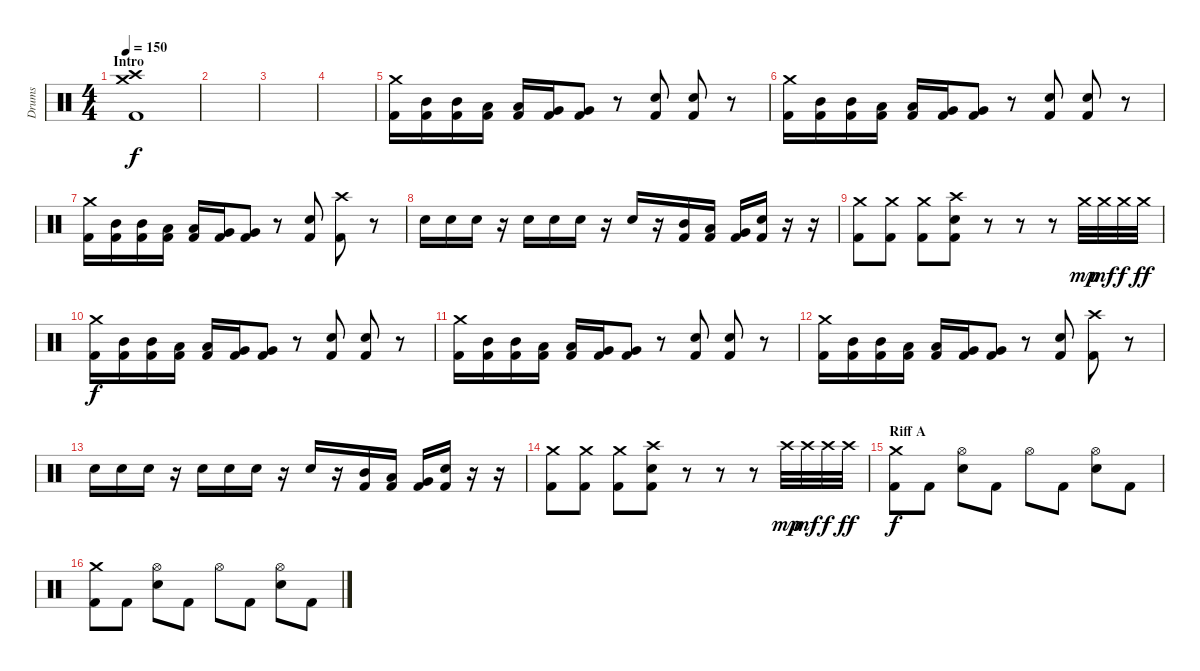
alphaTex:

\track ("Drums" "Drums") {instrument percussion}
\staff {score}
\articulation defaults
\ts (4 4)
\section ("" "Intro")
\tempo 150
\clef neutral
\ks c
("Crash medium (hit)" "Crash high (hit)" "Kick (hit) 2").1{dy f} |
|
|
|
("Crash medium (hit)" "Kick (hit) 2").16 ("Mid Tom (hit)" "Kick (hit) 2").16 ("Mid Tom (hit)" "Kick (hit) 2").16 ("Low Tom (hit)" "Kick (hit) 2").16 ("Low Tom (hit)" "Kick (hit) 2").16 ("Very Low Tom (hit)" "Kick (hit) 2").16 ("Very Low Tom (hit)" "Kick (hit) 2").8 r.8 ("Electric Snare (hit)" "Kick (hit) 2").8 ("Electric Snare (hit)" "Kick (hit) 2").8 r.8 |
("Crash medium (hit)" "Kick (hit) 2").16 ("Mid Tom (hit)" "Kick (hit) 2").16 ("Mid Tom (hit)" "Kick (hit) 2").16 ("Low Tom (hit)" "Kick (hit) 2").16 ("Low Tom (hit)" "Kick (hit) 2").16 ("Very Low Tom (hit)" "Kick (hit) 2").16 ("Very Low Tom (hit)" "Kick (hit) 2").8 r.8 ("Electric Snare (hit)" "Kick (hit) 2").8 ("Electric Snare (hit)" "Kick (hit) 2").8 r.8 |
("Crash medium (hit)" "Kick (hit) 2").16 ("Mid Tom (hit)" "Kick (hit) 2").16 ("Mid Tom (hit)" "Kick (hit) 2").16 ("Low Tom (hit)" "Kick (hit) 2").16 ("Low Tom (hit)" "Kick (hit) 2").16 ("Very Low Tom (hit)" "Kick (hit) 2").16 ("Very Low Tom (hit)" "Kick (hit) 2").8 r.8 ("Electric Snare (hit)" "Kick (hit) 2").8 ("Crash high (hit)" "Kick (hit) 2").8 r.8 |
"Electric Snare (hit)".16 "Electric Snare (hit)".16 "Electric Snare (hit)".16 r.16 "Electric Snare (hit)".16 "Electric Snare (hit)".16 "Electric Snare (hit)".16 r.16 "Electric Snare (hit)".16 r.16 ("Mid Tom (hit)" "Kick (hit) 2").16 ("Low Tom (hit)" "Kick (hit) 2").16 ("Very Low Tom (hit)" "Kick (hit) 2").16 ("Electric Snare (hit)" "Kick (hit) 2").16 r.16 r.16 |
("Crash medium (hit)" "Kick (hit) 2").8 ("Crash medium (hit)" "Kick (hit) 2").8 ("Crash medium (hit)" "Kick (hit) 2").8 ("Crash high (hit)" "Electric Snare (hit)" "Kick (hit) 2").8 r.8 r.8 r.8 "Crash medium (hit)".32{dy mp} "Crash medium (hit)".32{dy mf} "Crash medium (hit)".32{dy f} "Crash medium (hit)".32{dy ff} |
("Crash medium (hit)" "Kick (hit) 2").16{dy f} ("Mid Tom (hit)" "Kick (hit) 2").16 ("Mid Tom (hit)" "Kick (hit) 2").16 ("Low Tom (hit)" "Kick (hit) 2").16 ("Low Tom (hit)" "Kick (hit) 2").16 ("Very Low Tom (hit)" "Kick (hit) 2").16 ("Very Low Tom (hit)" "Kick (hit) 2").8 r.8 ("Electric Snare (hit)" "Kick (hit) 2").8 ("Electric Snare (hit)" "Kick (hit) 2").8 r.8 |
("Crash medium (hit)" "Kick (hit) 2").16 ("Mid Tom (hit)" "Kick (hit) 2").16 ("Mid Tom (hit)" "Kick (hit) 2").16 ("Low Tom (hit)" "Kick (hit) 2").16 ("Low Tom (hit)" "Kick (hit) 2").16 ("Very Low Tom (hit)" "Kick (hit) 2").16 ("Very Low Tom (hit)" "Kick (hit) 2").8 r.8 ("Electric Snare (hit)" "Kick (hit) 2").8 ("Electric Snare (hit)" "Kick (hit) 2").8 r.8 |
("Crash medium (hit)" "Kick (hit) 2").16 ("Mid Tom (hit)" "Kick (hit) 2").16 ("Mid Tom (hit)" "Kick (hit) 2").16 ("Low Tom (hit)" "Kick (hit) 2").16 ("Low Tom (hit)" "Kick (hit) 2").16 ("Very Low Tom (hit)" "Kick (hit) 2").16 ("Very Low Tom (hit)" "Kick (hit) 2").8 r.8 ("Electric Snare (hit)" "Kick (hit) 2").8 ("Crash high (hit)" "Kick (hit) 2").8 r.8 |
"Electric Snare (hit)".16 "Electric Snare (hit)".16 "Electric Snare (hit)".16 r.16 "Electric Snare (hit)".16 "Electric Snare (hit)".16 "Electric Snare (hit)".16 r.16 "Electric Snare (hit)".16 r.16 ("Mid Tom (hit)" "Kick (hit) 2").16 ("Low Tom (hit)" "Kick (hit) 2").16 ("Very Low Tom (hit)" "Kick (hit) 2").16 ("Electric Snare (hit)" "Kick (hit) 2").16 r.16 r.16 |
("Crash medium (hit)" "Kick (hit) 2").8 ("Crash medium (hit)" "Kick (hit) 2").8 ("Crash medium (hit)" "Kick (hit) 2").8 ("Crash high (hit)" "Electric Snare (hit)" "Kick (hit) 2").8 r.8 r.8 r.8 "Crash high (hit)".32{dy mp} "Crash high (hit)".32{dy mf} "Crash high (hit)".32{dy f} "Crash high (hit)".32{dy ff} |
\section ("" "Riff A")
("Crash medium (hit)" "Kick (hit) 2").8{dy f} "Kick (hit) 2".8 ("Hi-Hat (open)" "Electric Snare (hit)").8 "Kick (hit) 2".8 "Hi-Hat (open)".8 "Kick (hit) 2".8 ("Hi-Hat (open)" "Electric Snare (hit)").8 "Kick (hit) 2".8 |
("Crash medium (hit)" "Kick (hit) 2").8 "Kick (hit) 2".8 ("Hi-Hat (open)" "Electric Snare (hit)").8 "Kick (hit) 2".8 "Hi-Hat (open)".8 "Kick (hit) 2".8 ("Hi-Hat (open)" "Electric Snare (hit)").8 "Kick (hit) 2".8
